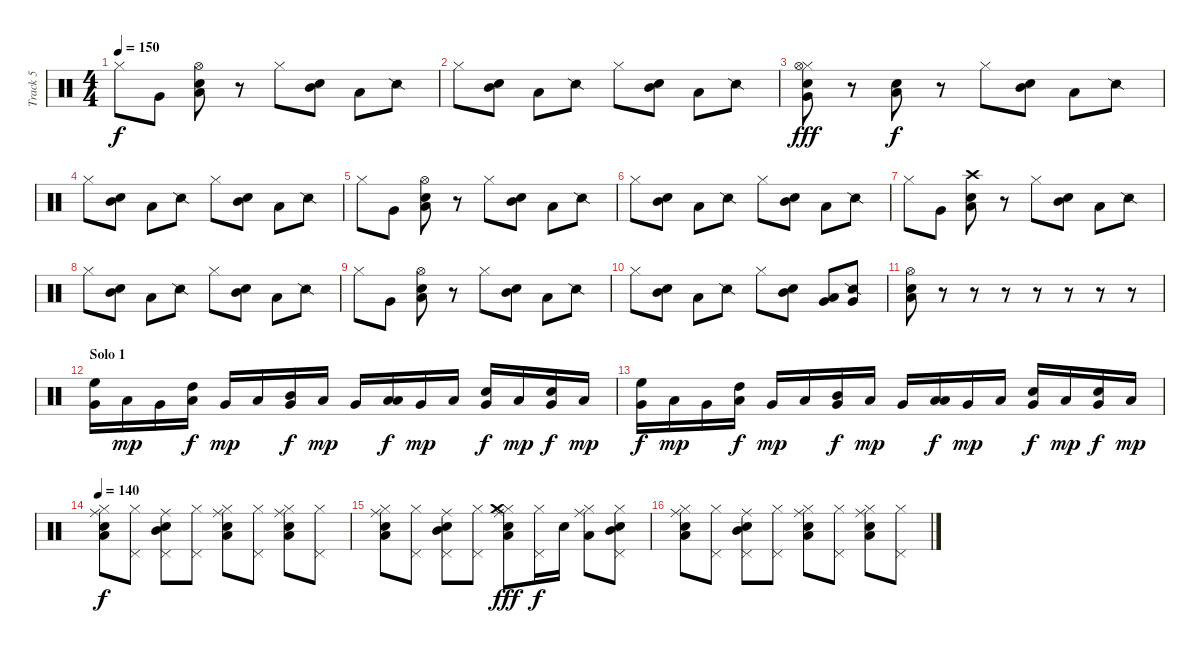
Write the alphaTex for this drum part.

\track ("Track 5" "Track 5") {instrument percussion}
\staff {score}
\articulation defaults
\ts (4 4)
\tempo 150
\clef neutral
\ks c "Hi-Hat (closed)".8{dy f} "Very Low Tom (hit)".8
("Low Tom (hit)" "Snare (hit) 2" "Hi-Hat (open)").8 r.8 "Hi-Hat (closed)".8 ("Mid Tom (hit)" "Electric Snare (hit)").8 "Low Tom (hit)".8 "Snare (side stick) 2".8 |
"Hi-Hat (closed)".8 ("Mid Tom (hit)" "Electric Snare (hit)").8 "Low Tom (hit)".8 "Snare (side stick) 2".8 "Hi-Hat (closed)".8 ("Mid Tom (hit)" "Electric Snare (hit)").8 "Low Tom (hit)".8 "Snare (side stick) 2".8 |
("Very Low Tom (hit)" "Hi-Hat (closed)" "Hi-Hat (open)" "Electric Snare (hit)").8{dy fff} r.8 ("Low Tom (hit)" "Snare (hit) 2").8{dy f} r.8 "Hi-Hat (closed)".8 ("Mid Tom (hit)" "Electric Snare (hit)").8 "Low Tom (hit)".8 "Snare (side stick) 2".8 |
"Hi-Hat (closed)".8 ("Mid Tom (hit)" "Electric Snare (hit)").8 "Low Tom (hit)".8 "Snare (side stick) 2".8 "Hi-Hat (closed)".8 ("Mid Tom (hit)" "Electric Snare (hit)").8 "Low Tom (hit)".8 "Snare (side stick) 2".8 |
"Hi-Hat (closed)".8 "Very Low Tom (hit)".8 ("Low Tom (hit)" "Snare (hit) 2" "Hi-Hat (open)").8 r.8 "Hi-Hat (closed)".8 ("Mid Tom (hit)" "Electric Snare (hit)").8 "Low Tom (hit)".8 "Snare (side stick) 2".8 |
"Hi-Hat (closed)".8 ("Mid Tom (hit)" "Electric Snare (hit)").8 "Low Tom (hit)".8 "Snare (side stick) 2".8 "Hi-Hat (closed)".8 ("Mid Tom (hit)" "Electric Snare (hit)").8 "Low Tom (hit)".8 "Snare (side stick) 2".8 |
"Hi-Hat (closed)".8 "Very Low Tom (hit)".8 ("Low Tom (hit)" "Snare (hit) 2" "Crash high (hit)").8 r.8 "Hi-Hat (closed)".8 ("Mid Tom (hit)" "Electric Snare (hit)").8 "Low Tom (hit)".8 "Snare (side stick) 2".8 |
"Hi-Hat (closed)".8 ("Mid Tom (hit)" "Electric Snare (hit)").8 "Low Tom (hit)".8 "Snare (side stick) 2".8 "Hi-Hat (closed)".8 ("Mid Tom (hit)" "Electric Snare (hit)").8 "Low Tom (hit)".8 "Snare (side stick) 2".8 |
"Hi-Hat (closed)".8 "Very Low Tom (hit)".8 ("Low Tom (hit)" "Snare (hit) 2" "Hi-Hat (open)").8 r.8 "Hi-Hat (closed)".8 ("Mid Tom (hit)" "Electric Snare (hit)").8 "Low Tom (hit)".8 "Snare (side stick) 2".8 |
"Hi-Hat (closed)".8 ("Mid Tom (hit)" "Electric Snare (hit)").8 "Low Tom (hit)".8 "Snare (side stick) 2".8 "Hi-Hat (closed)".8 ("Mid Tom (hit)" "Electric Snare (hit)").8 ("Low Tom (hit)" "Very Low Tom (hit)").8 ("Snare (side stick) 2" "Very Low Tom (hit)").8 |
("Low Tom (hit)" "Snare (hit) 2" "Hi-Hat (open)").8 r.8 r.8 r.8 r.8 r.8 r.8 r.8 |
\section ("" "Solo 1")
("Very Low Tom (hit)" "High Floor Tom (hit)").16 "Low Floor Tom (hit)".16{dy mp} "Very Low Tom (hit)".16 ("Low Floor Tom (hit)" "High Tom (hit)").16{dy f} "Very Low Tom (hit)".16{dy mp} "Low Floor Tom (hit)".16 ("Very Low Tom (hit)" "Mid Tom (hit)").16{dy f} "Low Floor Tom (hit)".16{dy mp} "Very Low Tom (hit)".16 ("Low Floor Tom (hit)" "Low Tom (hit)").16{dy f} "Very Low Tom (hit)".16{dy mp} "Low Floor Tom (hit)".16 ("Very Low Tom (hit)" "Snare (hit) 2").16{dy f} "Low Floor Tom (hit)".16{dy mp} ("Very Low Tom (hit)" "Snare (hit) 2").16{dy f} "Low Floor Tom (hit)".16{dy mp} |
("Very Low Tom (hit)" "High Floor Tom (hit)").16{dy f} "Low Floor Tom (hit)".16{dy mp} "Very Low Tom (hit)".16 ("Low Floor Tom (hit)" "High Tom (hit)").16{dy f} "Very Low Tom (hit)".16{dy mp} "Low Floor Tom (hit)".16 ("Very Low Tom (hit)" "Mid Tom (hit)").16{dy f} "Low Floor Tom (hit)".16{dy mp} "Very Low Tom (hit)".16 ("Low Floor Tom (hit)" "Low Tom (hit)").16{dy f} "Very Low Tom (hit)".16{dy mp} "Low Floor Tom (hit)".16 ("Very Low Tom (hit)" "Snare (hit) 2").16{dy f} "Low Floor Tom (hit)".16{dy mp} ("Very Low Tom (hit)" "Snare (hit) 2").16{dy f} "Low Floor Tom (hit)".16{dy mp} |
\tempo 140
("Low Tom (hit)" "Hi-Hat (closed)" "Ride (middle)" "Snare (hit) 2").8{dy f} ("Hi-Hat (closed)" "Pedal Hi-Hat (hit)").8 ("Mid Tom (hit)" "Pedal Hi-Hat (hit)" "Ride (middle)" "Electric Snare (hit)").8 ("Hi-Hat (closed)" "Pedal Hi-Hat (hit)").8 ("Low Tom (hit)" "Hi-Hat (closed)" "Ride (middle)" "Electric Snare (hit)").8 ("Hi-Hat (closed)" "Pedal Hi-Hat (hit)").8 ("Low Tom (hit)" "Hi-Hat (closed)" "Ride (middle)" "Electric Snare (hit)").8 ("Hi-Hat (closed)" "Pedal Hi-Hat (hit)").8 |
("Low Tom (hit)" "Hi-Hat (closed)" "Ride (middle)" "Electric Snare (hit)").8 ("Hi-Hat (closed)" "Pedal Hi-Hat (hit)").8 ("Mid Tom (hit)" "Pedal Hi-Hat (hit)" "Ride (middle)" "Electric Snare (hit)").8 ("Hi-Hat (closed)" "Pedal Hi-Hat (hit)").8 ("Low Tom (hit)" "Hi-Hat (closed)" "Ride (middle)" "Electric Snare (hit)" "Crash medium (hit)").8{dy fff} ("Hi-Hat (closed)" "Pedal Hi-Hat (hit)").16{dy f} "Electric Snare (hit)".16 ("Low Tom (hit)" "Hi-Hat (closed)" "Ride (middle)").8 ("Hi-Hat (closed)" "Pedal Hi-Hat (hit)" "Mid Tom (hit)" "Electric Snare (hit)").8 |
("Low Tom (hit)" "Hi-Hat (closed)" "Ride (middle)" "Snare (hit) 2").8 ("Hi-Hat (closed)" "Pedal Hi-Hat (hit)").8 ("Mid Tom (hit)" "Pedal Hi-Hat (hit)" "Ride (middle)" "Electric Snare (hit)").8 ("Hi-Hat (closed)" "Pedal Hi-Hat (hit)").8 ("Low Tom (hit)" "Hi-Hat (closed)" "Ride (middle)" "Electric Snare (hit)").8 ("Hi-Hat (closed)" "Pedal Hi-Hat (hit)").8 ("Low Tom (hit)" "Hi-Hat (closed)" "Ride (middle)" "Electric Snare (hit)").8 ("Hi-Hat (closed)" "Pedal Hi-Hat (hit)").8
